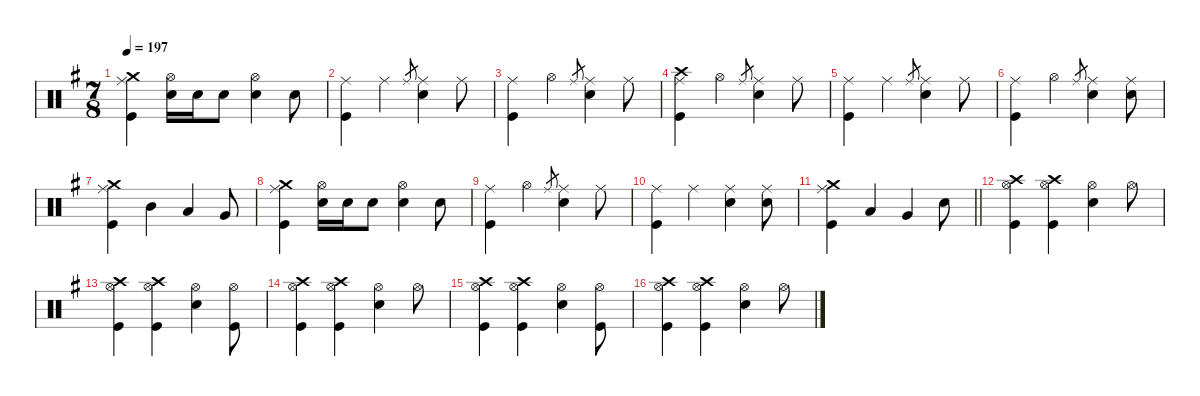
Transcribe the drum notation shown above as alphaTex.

\defaultSystemsLayout 4
\hideDynamics
\bracketExtendMode nobrackets
\singleTrackTrackNamePolicy hidden
\multiTrackTrackNamePolicy hidden
\firstSystemTrackNameMode fullname
\firstSystemTrackNameOrientation horizontal
\otherSystemsTrackNameOrientation horizontal
\track ("Drums" "drm.") {defaultSystemsLayout 4 instrument percussion}
\staff {score}
\articulation defaults
\ts (7 8)
\tempo 197
\clef neutral
\ks eminor
("Crash medium (hit)"{acc forcenatural} "Ride (middle)"{acc forcenatural} "Kick (hit)"{acc forcenatural}).4{dy mp beam Down} ("Hi-Hat (open)"{acc forcenatural} "Snare (hit) 2"{acc forcenatural}).16{dy f beam Down} "Snare (hit) 2"{acc forcenatural}.16{dy mp beam Down} "Snare (hit) 2"{acc forcenatural}.8{dy mf beam Down} ("Hi-Hat (open)"{acc forcenatural} "Snare (hit) 2"{acc forcenatural}).4{dy f beam Down} "Snare (hit) 2"{acc forcenatural}.8{beam Down} |
("Ride (middle)"{acc forcenatural} "Kick (hit)"{acc forcenatural}).4{beam Down} "Ride (middle)"{acc forcenatural}.4{beam Down} "Ride (middle)"{acc forcenatural}.8{gr dy mf beam Up} ("Ride (middle)"{acc forcenatural} "Snare (hit) 2"{acc forcenatural}).4{dy f beam Down} "Ride (middle)"{acc forcenatural}.8{beam Down} |
("Ride (middle)"{acc forcenatural} "Kick (hit)"{acc forcenatural}).4{beam Down} "Hi-Hat (open)"{acc forcenatural}.4{beam Down} "Ride (middle)"{acc forcenatural}.8{gr dy mf beam Up} ("Ride (middle)"{acc forcenatural} "Snare (hit) 2"{acc forcenatural}).4{dy f beam Down} "Ride (middle)"{acc forcenatural}.8{beam Down} |
("Crash high (hit)"{acc forcenatural} "Ride (middle)"{acc forcenatural} "Kick (hit)"{acc forcenatural}).4{dy mf beam Down} "Hi-Hat (open)"{acc forcenatural}.4{dy f beam Down} "Ride (middle)"{acc forcenatural}.8{gr dy mf beam Up} ("Ride (middle)"{acc forcenatural} "Snare (hit) 2"{acc forcenatural}).4{dy f beam Down} "Ride (middle)"{acc forcenatural}.8{beam Down} |
("Ride (middle)"{acc forcenatural} "Kick (hit)"{acc forcenatural}).4{beam Down} "Ride (middle)"{acc forcenatural}.4{beam Down} "Ride (middle)"{acc forcenatural}.8{gr dy mf beam Up} ("Ride (middle)"{acc forcenatural} "Snare (hit) 2"{acc forcenatural}).4{dy f beam Down} "Ride (middle)"{acc forcenatural}.8{beam Down} |
("Ride (middle)"{acc forcenatural} "Kick (hit)"{acc forcenatural}).4{beam Down} "Hi-Hat (open)"{acc forcenatural}.4{beam Down} "Ride (middle)"{acc forcenatural}.8{gr dy mf beam Up} ("Ride (middle)"{acc forcenatural} "Snare (hit) 2"{acc forcenatural}).4{dy f beam Down} ("Ride (middle)"{acc forcenatural} "Snare (hit) 2"{acc forcenatural}).8{beam Down} |
("Crash medium (hit)"{acc forcenatural} "Ride (middle)"{acc forcenatural} "Kick (hit)"{acc forcenatural}).4{dy mp beam Down} "Mid Tom (hit)"{acc forcenatural}.4{dy f beam Down} "Low Tom (hit)"{acc forcenatural}.4{beam Up} "Very Low Tom (hit)"{acc forcenatural}.8{beam Up} |
("Crash medium (hit)"{acc forcenatural} "Ride (middle)"{acc forcenatural} "Kick (hit)"{acc forcenatural}).4{dy mp beam Down} ("Hi-Hat (open)"{acc forcenatural} "Snare (hit) 2"{acc forcenatural}).16{dy f beam Down} "Snare (hit) 2"{acc forcenatural}.16{dy mp beam Down} "Snare (hit) 2"{acc forcenatural}.8{dy mf beam Down} ("Hi-Hat (open)"{acc forcenatural} "Snare (hit) 2"{acc forcenatural}).4{dy f beam Down} "Snare (hit) 2"{acc forcenatural}.8{beam Down} |
("Ride (middle)"{acc forcenatural} "Kick (hit)"{acc forcenatural}).4{beam Down} "Hi-Hat (open)"{acc forcenatural}.4{beam Down} "Ride (middle)"{acc forcenatural}.8{gr dy mf beam Up} ("Ride (middle)"{acc forcenatural} "Snare (hit) 2"{acc forcenatural}).4{dy f beam Down} "Ride (middle)"{acc forcenatural}.8{beam Down} |
("Ride (middle)"{acc forcenatural} "Kick (hit)"{acc forcenatural}).4{beam Down} "Ride (middle)"{acc forcenatural}.4{beam Down} ("Ride (middle)"{acc forcenatural} "Snare (hit) 2"{acc forcenatural}).4{beam Down} ("Ride (middle)"{acc forcenatural} "Snare (hit) 2"{acc forcenatural}).8{beam Down} |
\barLineRight lightlight
("Crash medium (hit)"{acc forcenatural} "Ride (middle)"{acc forcenatural} "Kick (hit)"{acc forcenatural}).4{dy mp beam Down} "Low Tom (hit)"{acc forcenatural}.4{dy f beam Up} "Very Low Tom (hit)"{acc forcenatural}.4{beam Up} "Snare (hit) 2"{acc forcenatural}.8{beam Down} |
("Hi-Hat (open)"{acc forcenatural} "Crash high (hit)"{acc forcenatural} "Kick (hit)"{acc forcenatural}).4{beam Down} ("Hi-Hat (open)"{acc forcenatural} "Crash high (hit)"{acc forcenatural} "Kick (hit)"{acc forcenatural}).4{beam Down} ("Hi-Hat (open)"{acc forcenatural} "Snare (hit) 2"{acc forcenatural}).4{beam Down} "Hi-Hat (open)"{acc forcenatural}.8{beam Down} |
("Hi-Hat (open)"{acc forcenatural} "Crash high (hit)"{acc forcenatural} "Kick (hit)"{acc forcenatural}).4{beam Down} ("Hi-Hat (open)"{acc forcenatural} "Crash high (hit)"{acc forcenatural} "Kick (hit)"{acc forcenatural}).4{beam Down} ("Hi-Hat (open)"{acc forcenatural} "Snare (hit) 2"{acc forcenatural}).4{beam Down} ("Hi-Hat (open)"{acc forcenatural} "Kick (hit)"{acc forcenatural}).8{beam Down} |
("Hi-Hat (open)"{acc forcenatural} "Crash high (hit)"{acc forcenatural} "Kick (hit)"{acc forcenatural}).4{beam Down} ("Hi-Hat (open)"{acc forcenatural} "Crash high (hit)"{acc forcenatural} "Kick (hit)"{acc forcenatural}).4{beam Down} ("Hi-Hat (open)"{acc forcenatural} "Snare (hit) 2"{acc forcenatural}).4{beam Down} "Hi-Hat (open)"{acc forcenatural}.8{beam Down} |
("Hi-Hat (open)"{acc forcenatural} "Crash high (hit)"{acc forcenatural} "Kick (hit)"{acc forcenatural}).4{beam Down} ("Hi-Hat (open)"{acc forcenatural} "Crash high (hit)"{acc forcenatural} "Kick (hit)"{acc forcenatural}).4{beam Down} ("Hi-Hat (open)"{acc forcenatural} "Snare (hit) 2"{acc forcenatural}).4{beam Down} ("Hi-Hat (open)"{acc forcenatural} "Kick (hit)"{acc forcenatural}).8{beam Down} |
("Hi-Hat (open)"{acc forcenatural} "Crash high (hit)"{acc forcenatural} "Kick (hit)"{acc forcenatural}).4{beam Down} ("Hi-Hat (open)"{acc forcenatural} "Crash high (hit)"{acc forcenatural} "Kick (hit)"{acc forcenatural}).4{beam Down} ("Hi-Hat (open)"{acc forcenatural} "Snare (hit) 2"{acc forcenatural}).4{beam Down} "Hi-Hat (open)"{acc forcenatural}.8{beam Down}
